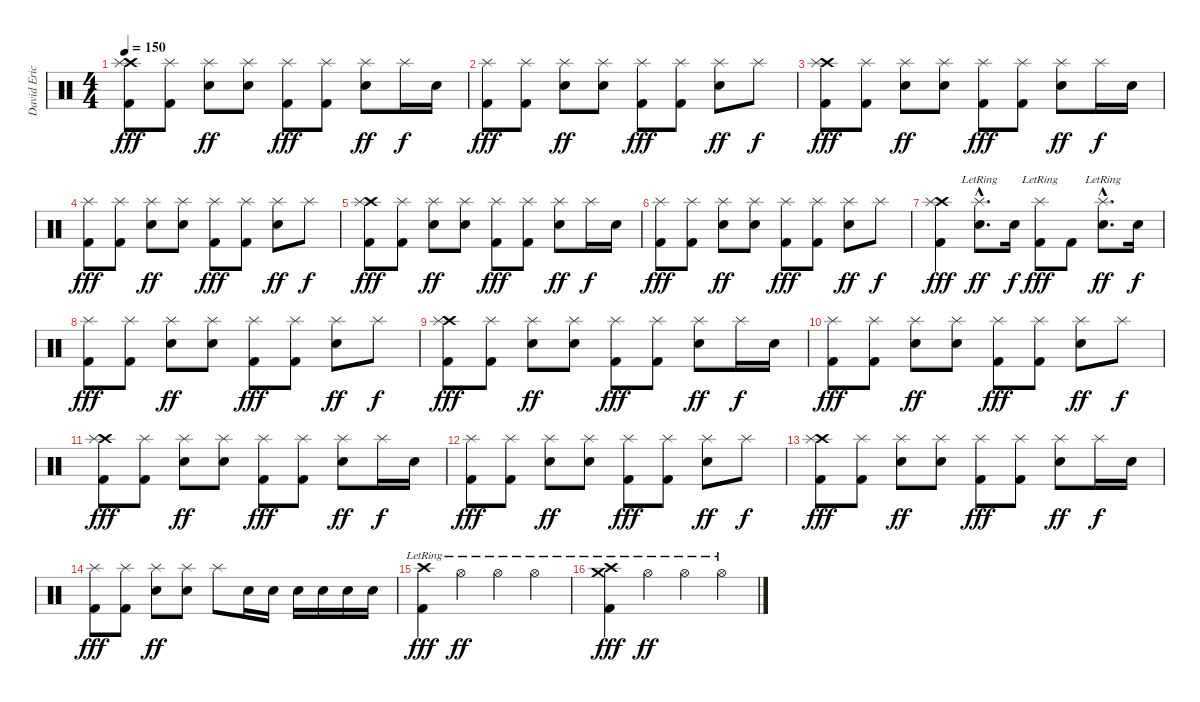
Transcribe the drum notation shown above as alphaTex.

\track ("David Eric Grohl" "David Eric") {instrument percussion}
\staff {score}
\articulation defaults
\ts (4 4)
\tempo 150
\clef neutral
\ks c
("Crash high (hit)" "Splash (hit)" "Kick (hit) 2").8{dy fff} ("Splash (hit)" "Kick (hit) 2").8 ("Splash (hit)" "Electric Snare (hit)").8{dy ff} ("Splash (hit)" "Electric Snare (hit)").8 ("Splash (hit)" "Kick (hit) 2").8{dy fff} ("Splash (hit)" "Kick (hit) 2").8 ("Splash (hit)" "Electric Snare (hit)").8{dy ff} "Splash (hit)".16{dy f} "Electric Snare (hit)".16 |
("Splash (hit)" "Kick (hit) 2").8{dy fff} ("Splash (hit)" "Kick (hit) 2").8 ("Splash (hit)" "Electric Snare (hit)").8{dy ff} ("Splash (hit)" "Electric Snare (hit)").8 ("Splash (hit)" "Kick (hit) 2").8{dy fff} ("Splash (hit)" "Kick (hit) 2").8 ("Splash (hit)" "Electric Snare (hit)").8{dy ff} "Splash (hit)".8{dy f} |
("Crash high (hit)" "Splash (hit)" "Kick (hit) 2").8{dy fff} ("Splash (hit)" "Kick (hit) 2").8 ("Splash (hit)" "Electric Snare (hit)").8{dy ff} ("Splash (hit)" "Electric Snare (hit)").8 ("Splash (hit)" "Kick (hit) 2").8{dy fff} ("Splash (hit)" "Kick (hit) 2").8 ("Splash (hit)" "Electric Snare (hit)").8{dy ff} "Splash (hit)".16{dy f} "Electric Snare (hit)".16 |
("Splash (hit)" "Kick (hit) 2").8{dy fff} ("Splash (hit)" "Kick (hit) 2").8 ("Splash (hit)" "Electric Snare (hit)").8{dy ff} ("Splash (hit)" "Electric Snare (hit)").8 ("Splash (hit)" "Kick (hit) 2").8{dy fff} ("Splash (hit)" "Kick (hit) 2").8 ("Splash (hit)" "Electric Snare (hit)").8{dy ff} "Splash (hit)".8{dy f} |
("Crash high (hit)" "Splash (hit)" "Kick (hit) 2").8{dy fff} ("Splash (hit)" "Kick (hit) 2").8 ("Splash (hit)" "Electric Snare (hit)").8{dy ff} ("Splash (hit)" "Electric Snare (hit)").8 ("Splash (hit)" "Kick (hit) 2").8{dy fff} ("Splash (hit)" "Kick (hit) 2").8 ("Splash (hit)" "Electric Snare (hit)").8{dy ff} "Splash (hit)".16{dy f} "Electric Snare (hit)".16 |
("Splash (hit)" "Kick (hit) 2").8{dy fff} ("Splash (hit)" "Kick (hit) 2").8 ("Splash (hit)" "Electric Snare (hit)").8{dy ff} ("Splash (hit)" "Electric Snare (hit)").8 ("Splash (hit)" "Kick (hit) 2").8{dy fff} ("Splash (hit)" "Kick (hit) 2").8 ("Splash (hit)" "Electric Snare (hit)").8{dy ff} "Splash (hit)".8{dy f} |
("Crash high (hit)" "Splash (hit)" "Kick (hit) 2").4{dy fff} ("Splash (hit)"{hac lr} "Electric Snare (hit)"{hac}).8{d dy ff} "Electric Snare (hit)".16{dy f} ("Splash (hit)"{lr} "Kick (hit) 2").8{dy fff} "Kick (hit) 2".8 ("Splash (hit)"{hac lr} "Electric Snare (hit)"{hac}).8{d dy ff} "Electric Snare (hit)".16{dy f} |
("Splash (hit)" "Kick (hit) 2").8{dy fff} ("Splash (hit)" "Kick (hit) 2").8 ("Splash (hit)" "Electric Snare (hit)").8{dy ff} ("Splash (hit)" "Electric Snare (hit)").8 ("Splash (hit)" "Kick (hit) 2").8{dy fff} ("Splash (hit)" "Kick (hit) 2").8 ("Splash (hit)" "Electric Snare (hit)").8{dy ff} "Splash (hit)".8{dy f} |
("Crash high (hit)" "Splash (hit)" "Kick (hit) 2").8{dy fff} ("Splash (hit)" "Kick (hit) 2").8 ("Splash (hit)" "Electric Snare (hit)").8{dy ff} ("Splash (hit)" "Electric Snare (hit)").8 ("Splash (hit)" "Kick (hit) 2").8{dy fff} ("Splash (hit)" "Kick (hit) 2").8 ("Splash (hit)" "Electric Snare (hit)").8{dy ff} "Splash (hit)".16{dy f} "Electric Snare (hit)".16 |
("Splash (hit)" "Kick (hit) 2").8{dy fff} ("Splash (hit)" "Kick (hit) 2").8 ("Splash (hit)" "Electric Snare (hit)").8{dy ff} ("Splash (hit)" "Electric Snare (hit)").8 ("Splash (hit)" "Kick (hit) 2").8{dy fff} ("Splash (hit)" "Kick (hit) 2").8 ("Splash (hit)" "Electric Snare (hit)").8{dy ff} "Splash (hit)".8{dy f} |
("Crash high (hit)" "Splash (hit)" "Kick (hit) 2").8{dy fff} ("Splash (hit)" "Kick (hit) 2").8 ("Splash (hit)" "Electric Snare (hit)").8{dy ff} ("Splash (hit)" "Electric Snare (hit)").8 ("Splash (hit)" "Kick (hit) 2").8{dy fff} ("Splash (hit)" "Kick (hit) 2").8 ("Splash (hit)" "Electric Snare (hit)").8{dy ff} "Splash (hit)".16{dy f} "Electric Snare (hit)".16 |
("Splash (hit)" "Kick (hit) 2").8{dy fff} ("Splash (hit)" "Kick (hit) 2").8 ("Splash (hit)" "Electric Snare (hit)").8{dy ff} ("Splash (hit)" "Electric Snare (hit)").8 ("Splash (hit)" "Kick (hit) 2").8{dy fff} ("Splash (hit)" "Kick (hit) 2").8 ("Splash (hit)" "Electric Snare (hit)").8{dy ff} "Splash (hit)".8{dy f} |
("Crash high (hit)" "Splash (hit)" "Kick (hit) 2").8{dy fff} ("Splash (hit)" "Kick (hit) 2").8 ("Splash (hit)" "Electric Snare (hit)").8{dy ff} ("Splash (hit)" "Electric Snare (hit)").8 ("Splash (hit)" "Kick (hit) 2").8{dy fff} ("Splash (hit)" "Kick (hit) 2").8 ("Splash (hit)" "Electric Snare (hit)").8{dy ff} "Splash (hit)".16{dy f} "Electric Snare (hit)".16 |
("Splash (hit)" "Kick (hit) 2").8{dy fff} ("Splash (hit)" "Kick (hit) 2").8 ("Splash (hit)" "Electric Snare (hit)").8{dy ff} ("Splash (hit)" "Electric Snare (hit)").8 "Splash (hit)".8 "Electric Snare (hit)".16 "Electric Snare (hit)".16 "Electric Snare (hit)".16 "Electric Snare (hit)".16 "Electric Snare (hit)".16 "Electric Snare (hit)".16 |
("Crash high (hit)"{lr} "Kick (hit) 2").4{dy fff} "Hi-Hat (open)"{lr}.4{dy ff} "Hi-Hat (open)"{lr}.4 "Hi-Hat (open)"{lr}.4 |
("Crash medium (hit)"{lr} "Crash high (hit)"{lr} "Kick (hit) 2").4{dy fff} "Hi-Hat (open)"{lr}.4{dy ff} "Hi-Hat (open)"{lr}.4 "Hi-Hat (open)"{lr}.4
